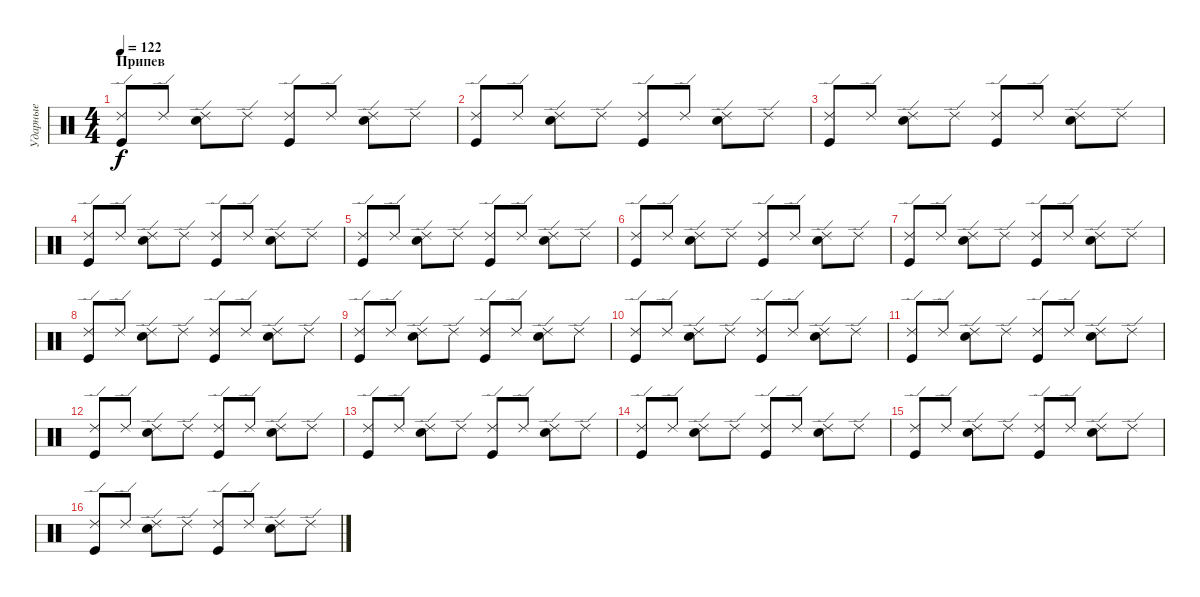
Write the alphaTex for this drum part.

\track ("Ударные" "Ударные") {instrument percussion}
\staff {score}
\articulation defaults
\ts (4 4)
\section ("" "Припев")
\tempo 122
\clef neutral
\ks c
("Kick (hit)" "Ride (edge) 2").8{dy f} "Ride (edge) 2".8 ("Ride (edge) 2" "Electric Snare (hit)").8 "Ride (edge) 2".8 ("Kick (hit)" "Ride (edge) 2").8 "Ride (edge) 2".8 ("Electric Snare (hit)" "Ride (edge) 2").8 "Ride (edge) 2".8 |
("Kick (hit)" "Ride (edge) 2").8 "Ride (edge) 2".8 ("Ride (edge) 2" "Electric Snare (hit)").8 "Ride (edge) 2".8 ("Kick (hit)" "Ride (edge) 2").8 "Ride (edge) 2".8 ("Electric Snare (hit)" "Ride (edge) 2").8 "Ride (edge) 2".8 |
("Kick (hit)" "Ride (edge) 2").8 "Ride (edge) 2".8 ("Ride (edge) 2" "Electric Snare (hit)").8 "Ride (edge) 2".8 ("Kick (hit)" "Ride (edge) 2").8 "Ride (edge) 2".8 ("Electric Snare (hit)" "Ride (edge) 2").8 "Ride (edge) 2".8 |
("Kick (hit)" "Ride (edge) 2").8 "Ride (edge) 2".8 ("Ride (edge) 2" "Electric Snare (hit)").8 "Ride (edge) 2".8 ("Kick (hit)" "Ride (edge) 2").8 "Ride (edge) 2".8 ("Electric Snare (hit)" "Ride (edge) 2").8 "Ride (edge) 2".8 |
("Kick (hit)" "Ride (edge) 2").8 "Ride (edge) 2".8 ("Ride (edge) 2" "Electric Snare (hit)").8 "Ride (edge) 2".8 ("Kick (hit)" "Ride (edge) 2").8 "Ride (edge) 2".8 ("Electric Snare (hit)" "Ride (edge) 2").8 "Ride (edge) 2".8 |
("Kick (hit)" "Ride (edge) 2").8 "Ride (edge) 2".8 ("Ride (edge) 2" "Electric Snare (hit)").8 "Ride (edge) 2".8 ("Kick (hit)" "Ride (edge) 2").8 "Ride (edge) 2".8 ("Electric Snare (hit)" "Ride (edge) 2").8 "Ride (edge) 2".8 |
("Kick (hit)" "Ride (edge) 2").8 "Ride (edge) 2".8 ("Ride (edge) 2" "Electric Snare (hit)").8 "Ride (edge) 2".8 ("Kick (hit)" "Ride (edge) 2").8 "Ride (edge) 2".8 ("Electric Snare (hit)" "Ride (edge) 2").8 "Ride (edge) 2".8 |
("Kick (hit)" "Ride (edge) 2").8 "Ride (edge) 2".8 ("Ride (edge) 2" "Electric Snare (hit)").8 "Ride (edge) 2".8 ("Kick (hit)" "Ride (edge) 2").8 "Ride (edge) 2".8 ("Electric Snare (hit)" "Ride (edge) 2").8 "Ride (edge) 2".8 |
("Kick (hit)" "Ride (edge) 2").8 "Ride (edge) 2".8 ("Ride (edge) 2" "Electric Snare (hit)").8 "Ride (edge) 2".8 ("Kick (hit)" "Ride (edge) 2").8 "Ride (edge) 2".8 ("Electric Snare (hit)" "Ride (edge) 2").8 "Ride (edge) 2".8 |
("Kick (hit)" "Ride (edge) 2").8 "Ride (edge) 2".8 ("Ride (edge) 2" "Electric Snare (hit)").8 "Ride (edge) 2".8 ("Kick (hit)" "Ride (edge) 2").8 "Ride (edge) 2".8 ("Electric Snare (hit)" "Ride (edge) 2").8 "Ride (edge) 2".8 |
("Kick (hit)" "Ride (edge) 2").8 "Ride (edge) 2".8 ("Ride (edge) 2" "Electric Snare (hit)").8 "Ride (edge) 2".8 ("Kick (hit)" "Ride (edge) 2").8 "Ride (edge) 2".8 ("Electric Snare (hit)" "Ride (edge) 2").8 "Ride (edge) 2".8 |
("Kick (hit)" "Ride (edge) 2").8 "Ride (edge) 2".8 ("Ride (edge) 2" "Electric Snare (hit)").8 "Ride (edge) 2".8 ("Kick (hit)" "Ride (edge) 2").8 "Ride (edge) 2".8 ("Electric Snare (hit)" "Ride (edge) 2").8 "Ride (edge) 2".8 |
("Kick (hit)" "Ride (edge) 2").8 "Ride (edge) 2".8 ("Ride (edge) 2" "Electric Snare (hit)").8 "Ride (edge) 2".8 ("Kick (hit)" "Ride (edge) 2").8 "Ride (edge) 2".8 ("Electric Snare (hit)" "Ride (edge) 2").8 "Ride (edge) 2".8 |
("Kick (hit)" "Ride (edge) 2").8 "Ride (edge) 2".8 ("Ride (edge) 2" "Electric Snare (hit)").8 "Ride (edge) 2".8 ("Kick (hit)" "Ride (edge) 2").8 "Ride (edge) 2".8 ("Electric Snare (hit)" "Ride (edge) 2").8 "Ride (edge) 2".8 |
("Kick (hit)" "Ride (edge) 2").8 "Ride (edge) 2".8 ("Ride (edge) 2" "Electric Snare (hit)").8 "Ride (edge) 2".8 ("Kick (hit)" "Ride (edge) 2").8 "Ride (edge) 2".8 ("Electric Snare (hit)" "Ride (edge) 2").8 "Ride (edge) 2".8 |
("Kick (hit)" "Ride (edge) 2").8 "Ride (edge) 2".8 ("Ride (edge) 2" "Electric Snare (hit)").8 "Ride (edge) 2".8 ("Kick (hit)" "Ride (edge) 2").8 "Ride (edge) 2".8 ("Electric Snare (hit)" "Ride (edge) 2").8 "Ride (edge) 2".8
